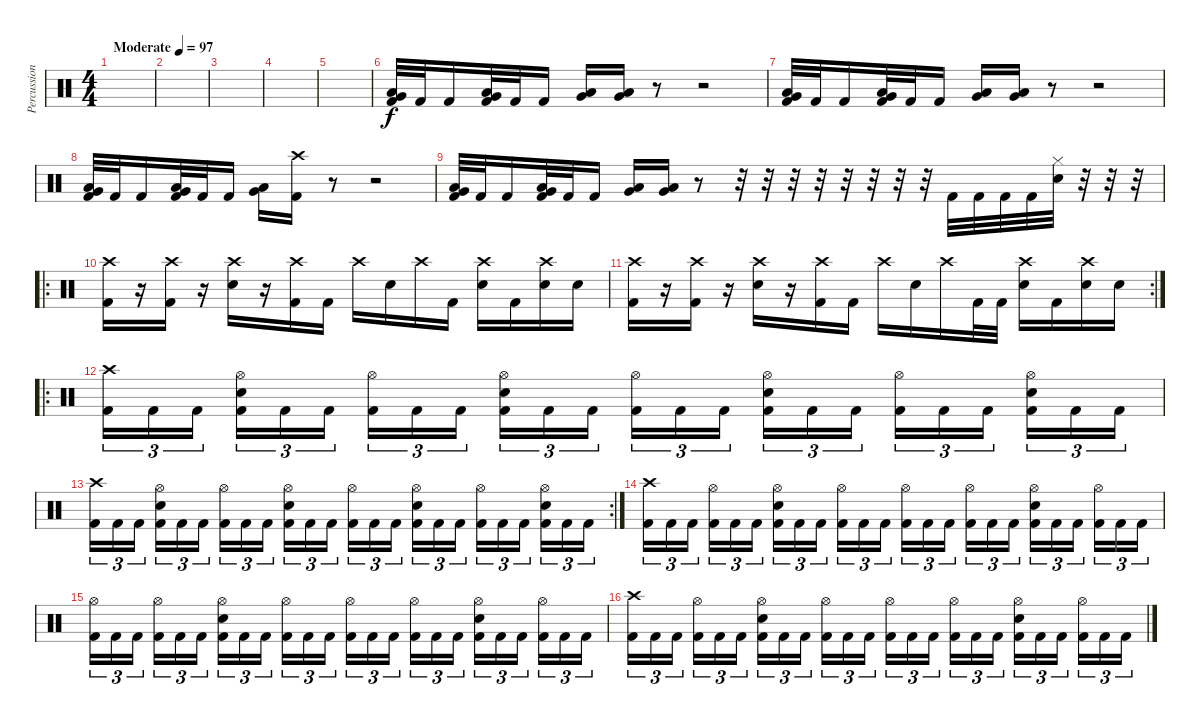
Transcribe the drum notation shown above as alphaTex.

\track ("Percussion" "Percussion") {instrument percussion}
\staff {score}
\articulation defaults
\ts (4 4)
\tempo (97 "Moderate")
\clef neutral
\ks c
|
|
|
|
|
("Low Tom (hit)" "Very Low Tom (hit)" "Kick (hit) 2").32 "Kick (hit) 2".32 "Kick (hit) 2".16 ("Low Tom (hit)" "Very Low Tom (hit)" "Kick (hit) 2").32 "Kick (hit) 2".32 "Kick (hit) 2".16 ("Low Tom (hit)" "Very Low Tom (hit)").16 ("Low Tom (hit)" "Very Low Tom (hit)").16 r.8 r.2 |
("Low Tom (hit)" "Very Low Tom (hit)" "Kick (hit) 2").32 "Kick (hit) 2".32 "Kick (hit) 2".16 ("Low Tom (hit)" "Very Low Tom (hit)" "Kick (hit) 2").32 "Kick (hit) 2".32 "Kick (hit) 2".16 ("Low Tom (hit)" "Very Low Tom (hit)").16 ("Low Tom (hit)" "Very Low Tom (hit)").16 r.8 r.2 |
("Low Tom (hit)" "Very Low Tom (hit)" "Kick (hit) 2").32 "Kick (hit) 2".32 "Kick (hit) 2".16 ("Low Tom (hit)" "Very Low Tom (hit)" "Kick (hit) 2").32 "Kick (hit) 2".32 "Kick (hit) 2".16 ("Low Tom (hit)" "Very Low Tom (hit)").16 ("Crash high (hit)" "Kick (hit) 2").16 r.8 r.2 |
("Low Tom (hit)" "Very Low Tom (hit)" "Kick (hit) 2").32 "Kick (hit) 2".32 "Kick (hit) 2".16 ("Low Tom (hit)" "Very Low Tom (hit)" "Kick (hit) 2").32 "Kick (hit) 2".32 "Kick (hit) 2".16 ("Low Tom (hit)" "Very Low Tom (hit)").16 ("Low Tom (hit)" "Very Low Tom (hit)").16 r.8 r.32 r.32 r.32 r.32 r.32 r.32 r.32 r.32 "Kick (hit) 2".32 "Kick (hit) 2".32 "Kick (hit) 2".32 "Kick (hit) 2".32 ("Hi-Hat (closed)" "Electric Snare (hit)").32 r.32 r.32 r.32 |
\ro
("Crash high (hit)" "Kick (hit) 2").16 r.16 ("Crash high (hit)" "Kick (hit) 2").16 r.16 ("Crash high (hit)" "Electric Snare (hit)").16 r.16 ("Crash high (hit)" "Kick (hit) 2").16 "Kick (hit) 2".16 "Crash high (hit)".16 "Electric Snare (hit)".16 "Crash high (hit)".16 "Kick (hit) 2".16 ("Crash high (hit)" "Electric Snare (hit)").16 "Kick (hit) 2".16 ("Crash high (hit)" "Electric Snare (hit)").16 "Electric Snare (hit)".16 |
\rc 2
("Crash high (hit)" "Kick (hit) 2").16 r.16 ("Crash high (hit)" "Kick (hit) 2").16 r.16 ("Crash high (hit)" "Electric Snare (hit)").16 r.16 ("Crash high (hit)" "Kick (hit) 2").16 "Kick (hit) 2".16 "Crash high (hit)".16 "Electric Snare (hit)".16 "Crash high (hit)".16 "Kick (hit) 2".32 "Kick (hit) 2".32 ("Crash high (hit)" "Electric Snare (hit)").16 "Kick (hit) 2".16 ("Crash high (hit)" "Electric Snare (hit)").16 "Electric Snare (hit)".16 |
\ro
("Crash high (hit)" "Kick (hit) 2").16{tu (3 2)} "Kick (hit) 2".16{tu (3 2)} "Kick (hit) 2".16{tu (3 2) beam splitsecondary} ("Hi-Hat (open)" "Electric Snare (hit)" "Kick (hit) 2").16{tu (3 2)} "Kick (hit) 2".16{tu (3 2)} "Kick (hit) 2".16{tu (3 2)} ("Hi-Hat (open)" "Kick (hit) 2").16{tu (3 2)} "Kick (hit) 2".16{tu (3 2)} "Kick (hit) 2".16{tu (3 2) beam splitsecondary} ("Hi-Hat (open)" "Electric Snare (hit)" "Kick (hit) 2").16{tu (3 2)} "Kick (hit) 2".16{tu (3 2)} "Kick (hit) 2".16{tu (3 2)} ("Hi-Hat (open)" "Kick (hit) 2").16{tu (3 2)} "Kick (hit) 2".16{tu (3 2)} "Kick (hit) 2".16{tu (3 2) beam splitsecondary} ("Hi-Hat (open)" "Electric Snare (hit)" "Kick (hit) 2").16{tu (3 2)} "Kick (hit) 2".16{tu (3 2)} "Kick (hit) 2".16{tu (3 2)} ("Hi-Hat (open)" "Kick (hit) 2").16{tu (3 2)} "Kick (hit) 2".16{tu (3 2)} "Kick (hit) 2".16{tu (3 2) beam splitsecondary} ("Hi-Hat (open)" "Electric Snare (hit)" "Kick (hit) 2").16{tu (3 2)} "Kick (hit) 2".16{tu (3 2)} "Kick (hit) 2".16{tu (3 2)} |
\rc 2
("Crash high (hit)" "Kick (hit) 2").16{tu (3 2)} "Kick (hit) 2".16{tu (3 2)} "Kick (hit) 2".16{tu (3 2) beam splitsecondary} ("Hi-Hat (open)" "Electric Snare (hit)" "Kick (hit) 2").16{tu (3 2)} "Kick (hit) 2".16{tu (3 2)} "Kick (hit) 2".16{tu (3 2)} ("Hi-Hat (open)" "Kick (hit) 2").16{tu (3 2)} "Kick (hit) 2".16{tu (3 2)} "Kick (hit) 2".16{tu (3 2) beam splitsecondary} ("Hi-Hat (open)" "Electric Snare (hit)" "Kick (hit) 2").16{tu (3 2)} "Kick (hit) 2".16{tu (3 2)} "Kick (hit) 2".16{tu (3 2)} ("Hi-Hat (open)" "Kick (hit) 2").16{tu (3 2)} "Kick (hit) 2".16{tu (3 2)} "Kick (hit) 2".16{tu (3 2) beam splitsecondary} ("Hi-Hat (open)" "Electric Snare (hit)" "Kick (hit) 2").16{tu (3 2)} "Kick (hit) 2".16{tu (3 2)} "Kick (hit) 2".16{tu (3 2)} ("Hi-Hat (open)" "Kick (hit) 2").16{tu (3 2)} "Kick (hit) 2".16{tu (3 2)} "Kick (hit) 2".16{tu (3 2) beam splitsecondary} ("Hi-Hat (open)" "Electric Snare (hit)" "Kick (hit) 2").16{tu (3 2)} "Kick (hit) 2".16{tu (3 2)} "Kick (hit) 2".16{tu (3 2)} |
("Crash high (hit)" "Kick (hit) 2").16{tu (3 2)} "Kick (hit) 2".16{tu (3 2)} "Kick (hit) 2".16{tu (3 2) beam splitsecondary} ("Hi-Hat (open)" "Kick (hit) 2").16{tu (3 2)} "Kick (hit) 2".16{tu (3 2)} "Kick (hit) 2".16{tu (3 2)} ("Hi-Hat (open)" "Electric Snare (hit)" "Kick (hit) 2").16{tu (3 2)} "Kick (hit) 2".16{tu (3 2)} "Kick (hit) 2".16{tu (3 2) beam splitsecondary} ("Hi-Hat (open)" "Kick (hit) 2").16{tu (3 2)} "Kick (hit) 2".16{tu (3 2)} "Kick (hit) 2".16{tu (3 2)} ("Hi-Hat (open)" "Kick (hit) 2").16{tu (3 2)} "Kick (hit) 2".16{tu (3 2)} "Kick (hit) 2".16{tu (3 2) beam splitsecondary} ("Hi-Hat (open)" "Kick (hit) 2").16{tu (3 2)} "Kick (hit) 2".16{tu (3 2)} "Kick (hit) 2".16{tu (3 2)} ("Hi-Hat (open)" "Electric Snare (hit)" "Kick (hit) 2").16{tu (3 2)} "Kick (hit) 2".16{tu (3 2)} "Kick (hit) 2".16{tu (3 2) beam splitsecondary} ("Hi-Hat (open)" "Kick (hit) 2").16{tu (3 2)} "Kick (hit) 2".16{tu (3 2)} "Kick (hit) 2".16{tu (3 2)} |
("Hi-Hat (open)" "Kick (hit) 2").16{tu (3 2)} "Kick (hit) 2".16{tu (3 2)} "Kick (hit) 2".16{tu (3 2) beam splitsecondary} ("Hi-Hat (open)" "Kick (hit) 2").16{tu (3 2)} "Kick (hit) 2".16{tu (3 2)} "Kick (hit) 2".16{tu (3 2)} ("Hi-Hat (open)" "Electric Snare (hit)" "Kick (hit) 2").16{tu (3 2)} "Kick (hit) 2".16{tu (3 2)} "Kick (hit) 2".16{tu (3 2) beam splitsecondary} ("Hi-Hat (open)" "Kick (hit) 2").16{tu (3 2)} "Kick (hit) 2".16{tu (3 2)} "Kick (hit) 2".16{tu (3 2)} ("Hi-Hat (open)" "Kick (hit) 2").16{tu (3 2)} "Kick (hit) 2".16{tu (3 2)} "Kick (hit) 2".16{tu (3 2) beam splitsecondary} ("Hi-Hat (open)" "Kick (hit) 2").16{tu (3 2)} "Kick (hit) 2".16{tu (3 2)} "Kick (hit) 2".16{tu (3 2)} ("Hi-Hat (open)" "Electric Snare (hit)" "Kick (hit) 2").16{tu (3 2)} "Kick (hit) 2".16{tu (3 2)} "Kick (hit) 2".16{tu (3 2) beam splitsecondary} ("Hi-Hat (open)" "Kick (hit) 2").16{tu (3 2)} "Kick (hit) 2".16{tu (3 2)} "Kick (hit) 2".16{tu (3 2)} |
("Crash high (hit)" "Kick (hit) 2").16{tu (3 2)} "Kick (hit) 2".16{tu (3 2)} "Kick (hit) 2".16{tu (3 2) beam splitsecondary} ("Hi-Hat (open)" "Kick (hit) 2").16{tu (3 2)} "Kick (hit) 2".16{tu (3 2)} "Kick (hit) 2".16{tu (3 2)} ("Hi-Hat (open)" "Electric Snare (hit)" "Kick (hit) 2").16{tu (3 2)} "Kick (hit) 2".16{tu (3 2)} "Kick (hit) 2".16{tu (3 2) beam splitsecondary} ("Hi-Hat (open)" "Kick (hit) 2").16{tu (3 2)} "Kick (hit) 2".16{tu (3 2)} "Kick (hit) 2".16{tu (3 2)} ("Hi-Hat (open)" "Kick (hit) 2").16{tu (3 2)} "Kick (hit) 2".16{tu (3 2)} "Kick (hit) 2".16{tu (3 2) beam splitsecondary} ("Hi-Hat (open)" "Kick (hit) 2").16{tu (3 2)} "Kick (hit) 2".16{tu (3 2)} "Kick (hit) 2".16{tu (3 2)} ("Hi-Hat (open)" "Electric Snare (hit)" "Kick (hit) 2").16{tu (3 2)} "Kick (hit) 2".16{tu (3 2)} "Kick (hit) 2".16{tu (3 2) beam splitsecondary} ("Hi-Hat (open)" "Kick (hit) 2").16{tu (3 2)} "Kick (hit) 2".16{tu (3 2)} "Kick (hit) 2".16{tu (3 2)}
